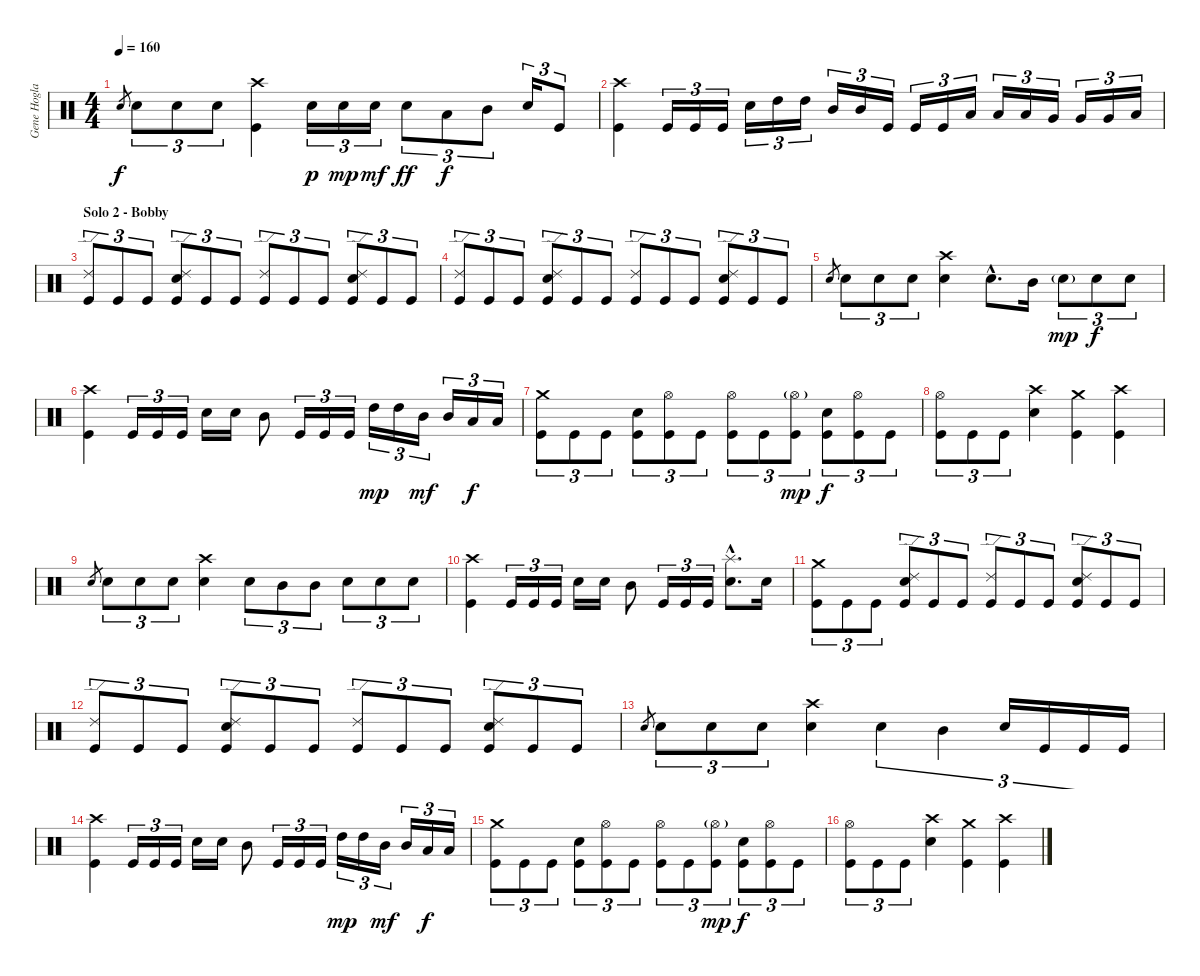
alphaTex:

\track ("Gene Hoglan" "Gene Hogla") {instrument percussion}
\staff {score}
\articulation defaults
\ts (4 4)
\tempo 160
\clef neutral
\ks c "Electric Snare (hit)".8{gr dy f} "Electric Snare (hit)".8{tu (3 2)} "Electric Snare (hit)".8{tu (3 2)} "Electric Snare (hit)".8{tu (3 2)}
("Crash high (hit)" "Kick (hit)").4 "Electric Snare (hit)".16{tu (3 2) dy p} "Electric Snare (hit)".16{tu (3 2) dy mp} "Electric Snare (hit)".16{tu (3 2) dy mf} "Electric Snare (hit)".8{tu (3 2) dy ff} "Low Tom (hit)".8{tu (3 2) dy f} "Mid Tom (hit)".8{tu (3 2)} "Electric Snare (hit)".16{tu (3 2)} "Kick (hit)".8{tu (3 2)} |
("Crash high (hit)" "Kick (hit)").4 "Kick (hit)".16{tu (3 2)} "Kick (hit)".16{tu (3 2)} "Kick (hit)".16{tu (3 2)} "Electric Snare (hit)".16{tu (3 2)} "High Tom (hit)".16{tu (3 2)} "High Tom (hit)".16{tu (3 2)} "Mid Tom (hit)".16{tu (3 2)} "Mid Tom (hit)".16{tu (3 2)} "Kick (hit)".16{tu (3 2)} "Kick (hit)".16{tu (3 2)} "Kick (hit)".16{tu (3 2)} "Low Tom (hit)".16{tu (3 2)} "Low Tom (hit)".16{tu (3 2)} "Low Tom (hit)".16{tu (3 2)} "Very Low Tom (hit)".16{tu (3 2)} "Very Low Tom (hit)".16{tu (3 2)} "Very Low Tom (hit)".16{tu (3 2)} "Low Floor Tom (hit)".16{tu (3 2)} |
\section ("" "Solo 2 - Bobby")
("Ride (edge) 2" "Kick (hit)").8{tu (3 2)} "Kick (hit)".8{tu (3 2)} "Kick (hit)".8{tu (3 2)} ("Ride (edge) 2" "Electric Snare (hit)" "Kick (hit)").8{tu (3 2)} "Kick (hit)".8{tu (3 2)} "Kick (hit)".8{tu (3 2)} ("Ride (edge) 2" "Kick (hit)").8{tu (3 2)} "Kick (hit)".8{tu (3 2)} "Kick (hit)".8{tu (3 2)} ("Ride (edge) 2" "Electric Snare (hit)" "Kick (hit)").8{tu (3 2)} "Kick (hit)".8{tu (3 2)} "Kick (hit)".8{tu (3 2)} |
("Ride (edge) 2" "Kick (hit)").8{tu (3 2)} "Kick (hit)".8{tu (3 2)} "Kick (hit)".8{tu (3 2)} ("Ride (edge) 2" "Electric Snare (hit)" "Kick (hit)").8{tu (3 2)} "Kick (hit)".8{tu (3 2)} "Kick (hit)".8{tu (3 2)} ("Ride (edge) 2" "Kick (hit)").8{tu (3 2)} "Kick (hit)".8{tu (3 2)} "Kick (hit)".8{tu (3 2)} ("Ride (edge) 2" "Electric Snare (hit)" "Kick (hit)").8{tu (3 2)} "Kick (hit)".8{tu (3 2)} "Kick (hit)".8{tu (3 2)} |
"Electric Snare (hit)".8{gr} "Electric Snare (hit)".8{tu (3 2)} "Electric Snare (hit)".8{tu (3 2)} "Electric Snare (hit)".8{tu (3 2)} ("Crash high (hit)" "Electric Snare (hit)").4 "Electric Snare (hit)"{hac}.8{d} "Mid Tom (hit)".16 "Electric Snare (hit)"{g}.8{tu (3 2) dy mp} "Electric Snare (hit)".8{tu (3 2) dy f} "Electric Snare (hit)".8{tu (3 2)} |
("Crash high (hit)" "Kick (hit)").4 "Kick (hit)".16{tu (3 2)} "Kick (hit)".16{tu (3 2)} "Kick (hit)".16{tu (3 2)} "Electric Snare (hit)".16 "Electric Snare (hit)".16 "Mid Tom (hit)".8 "Kick (hit)".16{tu (3 2)} "Kick (hit)".16{tu (3 2)} "Kick (hit)".16{tu (3 2)} "High Tom (hit)".16{tu (3 2) dy mp} "High Tom (hit)".16{tu (3 2)} "Mid Tom (hit)".16{tu (3 2) dy mf} "Mid Tom (hit)".16{tu (3 2)} "Low Tom (hit)".16{tu (3 2) dy f} "Low Tom (hit)".16{tu (3 2)} |
("Crash medium (hit)" "Kick (hit)").8{tu (3 2)} "Kick (hit)".8{tu (3 2)} "Kick (hit)".8{tu (3 2)} ("Electric Snare (hit)" "Kick (hit)").8{tu (3 2)} ("Hi-Hat (open)" "Kick (hit)").8{tu (3 2)} "Kick (hit)".8{tu (3 2)} ("Hi-Hat (open)" "Kick (hit)").8{tu (3 2)} "Kick (hit)".8{tu (3 2)} ("Hi-Hat (open)"{g} "Kick (hit)").8{tu (3 2) dy mp} ("Electric Snare (hit)" "Kick (hit)").8{tu (3 2) dy f} ("Hi-Hat (open)" "Kick (hit)").8{tu (3 2)} "Kick (hit)".8{tu (3 2)} |
("Hi-Hat (open)" "Kick (hit)").8{tu (3 2)} "Kick (hit)".8{tu (3 2)} "Kick (hit)".8{tu (3 2)} ("Crash high (hit)" "Electric Snare (hit)").4 ("Crash medium (hit)" "Kick (hit)").4 ("Crash high (hit)" "Kick (hit)").4 |
"Electric Snare (hit)".8{gr} "Electric Snare (hit)".8{tu (3 2)} "Electric Snare (hit)".8{tu (3 2)} "Electric Snare (hit)".8{tu (3 2)} ("Crash high (hit)" "Electric Snare (hit)").4 "Electric Snare (hit)".8{tu (3 2)} "Mid Tom (hit)".8{tu (3 2)} "Mid Tom (hit)".8{tu (3 2)} "Electric Snare (hit)".8{tu (3 2)} "Electric Snare (hit)".8{tu (3 2)} "Electric Snare (hit)".8{tu (3 2)} |
("Crash high (hit)" "Kick (hit)").4 "Kick (hit)".16{tu (3 2)} "Kick (hit)".16{tu (3 2)} "Kick (hit)".16{tu (3 2)} "Electric Snare (hit)".16 "Electric Snare (hit)".16 "Mid Tom (hit)".8 "Kick (hit)".16{tu (3 2)} "Kick (hit)".16{tu (3 2)} "Kick (hit)".16{tu (3 2)} ("Splash (hit)"{hac} "Electric Snare (hit)"{hac}).8{d} "Electric Snare (hit)".16 |
("Crash medium (hit)" "Kick (hit)").8{tu (3 2)} "Kick (hit)".8{tu (3 2)} "Kick (hit)".8{tu (3 2)} ("Ride (edge) 2" "Electric Snare (hit)" "Kick (hit)").8{tu (3 2)} "Kick (hit)".8{tu (3 2)} "Kick (hit)".8{tu (3 2)} ("Ride (edge) 2" "Kick (hit)").8{tu (3 2)} "Kick (hit)".8{tu (3 2)} "Kick (hit)".8{tu (3 2)} ("Ride (edge) 2" "Electric Snare (hit)" "Kick (hit)").8{tu (3 2)} "Kick (hit)".8{tu (3 2)} "Kick (hit)".8{tu (3 2)} |
("Ride (edge) 2" "Kick (hit)").8{tu (3 2)} "Kick (hit)".8{tu (3 2)} "Kick (hit)".8{tu (3 2)} ("Ride (edge) 2" "Electric Snare (hit)" "Kick (hit)").8{tu (3 2)} "Kick (hit)".8{tu (3 2)} "Kick (hit)".8{tu (3 2)} ("Ride (edge) 2" "Kick (hit)").8{tu (3 2)} "Kick (hit)".8{tu (3 2)} "Kick (hit)".8{tu (3 2)} ("Ride (edge) 2" "Electric Snare (hit)" "Kick (hit)").8{tu (3 2)} "Kick (hit)".8{tu (3 2)} "Kick (hit)".8{tu (3 2)} |
"Electric Snare (hit)".8{gr} "Electric Snare (hit)".8{tu (3 2)} "Electric Snare (hit)".8{tu (3 2)} "Electric Snare (hit)".8{tu (3 2)} ("Crash high (hit)" "Electric Snare (hit)").4 "Electric Snare (hit)".4{tu (3 2)} "Mid Tom (hit)".4{tu (3 2)} "Electric Snare (hit)".16{tu (3 2)} "Kick (hit)".16{tu (3 2)} "Kick (hit)".16{tu (3 2)} "Kick (hit)".16{tu (3 2)} |
("Crash high (hit)" "Kick (hit)").4 "Kick (hit)".16{tu (3 2)} "Kick (hit)".16{tu (3 2)} "Kick (hit)".16{tu (3 2)} "Electric Snare (hit)".16 "Electric Snare (hit)".16 "Mid Tom (hit)".8 "Kick (hit)".16{tu (3 2)} "Kick (hit)".16{tu (3 2)} "Kick (hit)".16{tu (3 2)} "High Tom (hit)".16{tu (3 2) dy mp} "High Tom (hit)".16{tu (3 2)} "Mid Tom (hit)".16{tu (3 2) dy mf} "Mid Tom (hit)".16{tu (3 2)} "Low Tom (hit)".16{tu (3 2) dy f} "Low Tom (hit)".16{tu (3 2)} |
("Crash medium (hit)" "Kick (hit)").8{tu (3 2)} "Kick (hit)".8{tu (3 2)} "Kick (hit)".8{tu (3 2)} ("Electric Snare (hit)" "Kick (hit)").8{tu (3 2)} ("Hi-Hat (open)" "Kick (hit)").8{tu (3 2)} "Kick (hit)".8{tu (3 2)} ("Hi-Hat (open)" "Kick (hit)").8{tu (3 2)} "Kick (hit)".8{tu (3 2)} ("Hi-Hat (open)"{g} "Kick (hit)").8{tu (3 2) dy mp} ("Electric Snare (hit)" "Kick (hit)").8{tu (3 2) dy f} ("Hi-Hat (open)" "Kick (hit)").8{tu (3 2)} "Kick (hit)".8{tu (3 2)} |
("Hi-Hat (open)" "Kick (hit)").8{tu (3 2)} "Kick (hit)".8{tu (3 2)} "Kick (hit)".8{tu (3 2)} ("Crash high (hit)" "Electric Snare (hit)").4 ("Crash medium (hit)" "Kick (hit)").4 ("Crash high (hit)" "Kick (hit)").4
